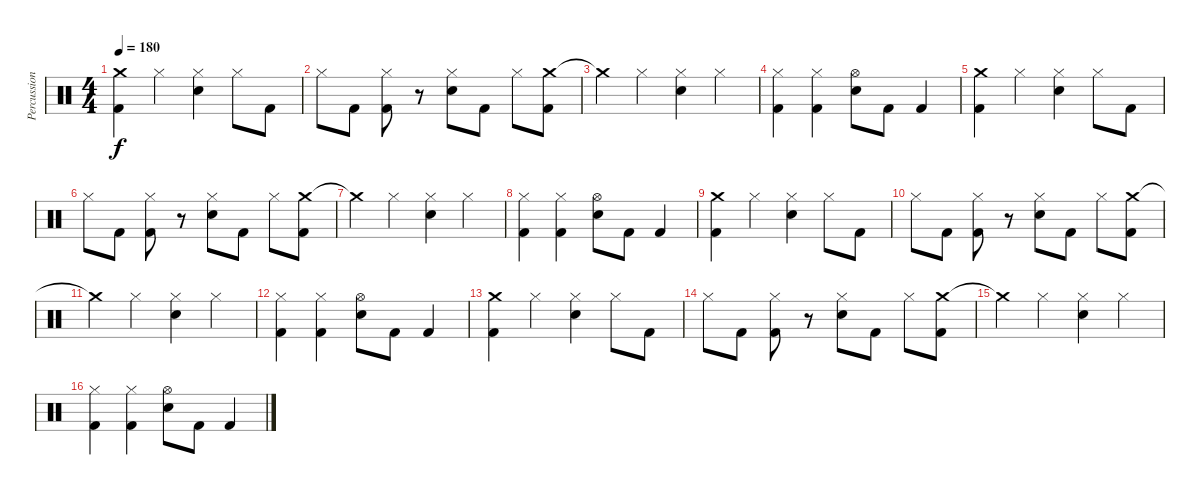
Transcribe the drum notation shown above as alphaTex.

\track ("Percussion" "Percussion") {instrument percussion}
\staff {score}
\articulation defaults
\ts (4 4)
\tempo 180
\clef neutral
\ks c
("Crash medium (hit)" "Kick (hit) 2").4{dy f} "Hi-Hat (closed)".4 ("Hi-Hat (closed)" "Snare (hit) 2").4 "Hi-Hat (closed)".8 "Kick (hit) 2".8 |
"Hi-Hat (closed)".8 "Kick (hit) 2".8 ("Hi-Hat (closed)" "Kick (hit) 2").8 r.8 ("Hi-Hat (closed)" "Snare (hit) 2").8 "Kick (hit) 2".8 "Hi-Hat (closed)".8 ("Crash medium (hit)" "Kick (hit) 2").8 |
"Crash medium (hit)"{t}.4 "Hi-Hat (closed)".4 ("Hi-Hat (closed)" "Snare (hit) 2").4 "Hi-Hat (closed)".4 |
("Hi-Hat (closed)" "Kick (hit) 2").4 ("Hi-Hat (closed)" "Kick (hit) 2").4 ("Hi-Hat (open)" "Snare (hit) 2").8 "Kick (hit) 2".8 "Kick (hit) 2".4 |
("Crash medium (hit)" "Kick (hit) 2").4 "Hi-Hat (closed)".4 ("Hi-Hat (closed)" "Snare (hit) 2").4 "Hi-Hat (closed)".8 "Kick (hit) 2".8 |
"Hi-Hat (closed)".8 "Kick (hit) 2".8 ("Hi-Hat (closed)" "Kick (hit) 2").8 r.8 ("Hi-Hat (closed)" "Snare (hit) 2").8 "Kick (hit) 2".8 "Hi-Hat (closed)".8 ("Crash medium (hit)" "Kick (hit) 2").8 |
"Crash medium (hit)"{t}.4 "Hi-Hat (closed)".4 ("Hi-Hat (closed)" "Snare (hit) 2").4 "Hi-Hat (closed)".4 |
("Hi-Hat (closed)" "Kick (hit) 2").4 ("Hi-Hat (closed)" "Kick (hit) 2").4 ("Hi-Hat (open)" "Snare (hit) 2").8 "Kick (hit) 2".8 "Kick (hit) 2".4 |
("Crash medium (hit)" "Kick (hit) 2").4 "Hi-Hat (closed)".4 ("Hi-Hat (closed)" "Snare (hit) 2").4 "Hi-Hat (closed)".8 "Kick (hit) 2".8 |
"Hi-Hat (closed)".8 "Kick (hit) 2".8 ("Hi-Hat (closed)" "Kick (hit) 2").8 r.8 ("Hi-Hat (closed)" "Snare (hit) 2").8 "Kick (hit) 2".8 "Hi-Hat (closed)".8 ("Crash medium (hit)" "Kick (hit) 2").8 |
"Crash medium (hit)"{t}.4 "Hi-Hat (closed)".4 ("Hi-Hat (closed)" "Snare (hit) 2").4 "Hi-Hat (closed)".4 |
("Hi-Hat (closed)" "Kick (hit) 2").4 ("Hi-Hat (closed)" "Kick (hit) 2").4 ("Hi-Hat (open)" "Snare (hit) 2").8 "Kick (hit) 2".8 "Kick (hit) 2".4 |
("Crash medium (hit)" "Kick (hit) 2").4 "Hi-Hat (closed)".4 ("Hi-Hat (closed)" "Snare (hit) 2").4 "Hi-Hat (closed)".8 "Kick (hit) 2".8 |
"Hi-Hat (closed)".8 "Kick (hit) 2".8 ("Hi-Hat (closed)" "Kick (hit) 2").8 r.8 ("Hi-Hat (closed)" "Snare (hit) 2").8 "Kick (hit) 2".8 "Hi-Hat (closed)".8 ("Crash medium (hit)" "Kick (hit) 2").8 |
"Crash medium (hit)"{t}.4 "Hi-Hat (closed)".4 ("Hi-Hat (closed)" "Snare (hit) 2").4 "Hi-Hat (closed)".4 |
("Hi-Hat (closed)" "Kick (hit) 2").4 ("Hi-Hat (closed)" "Kick (hit) 2").4 ("Hi-Hat (open)" "Snare (hit) 2").8 "Kick (hit) 2".8 "Kick (hit) 2".4
